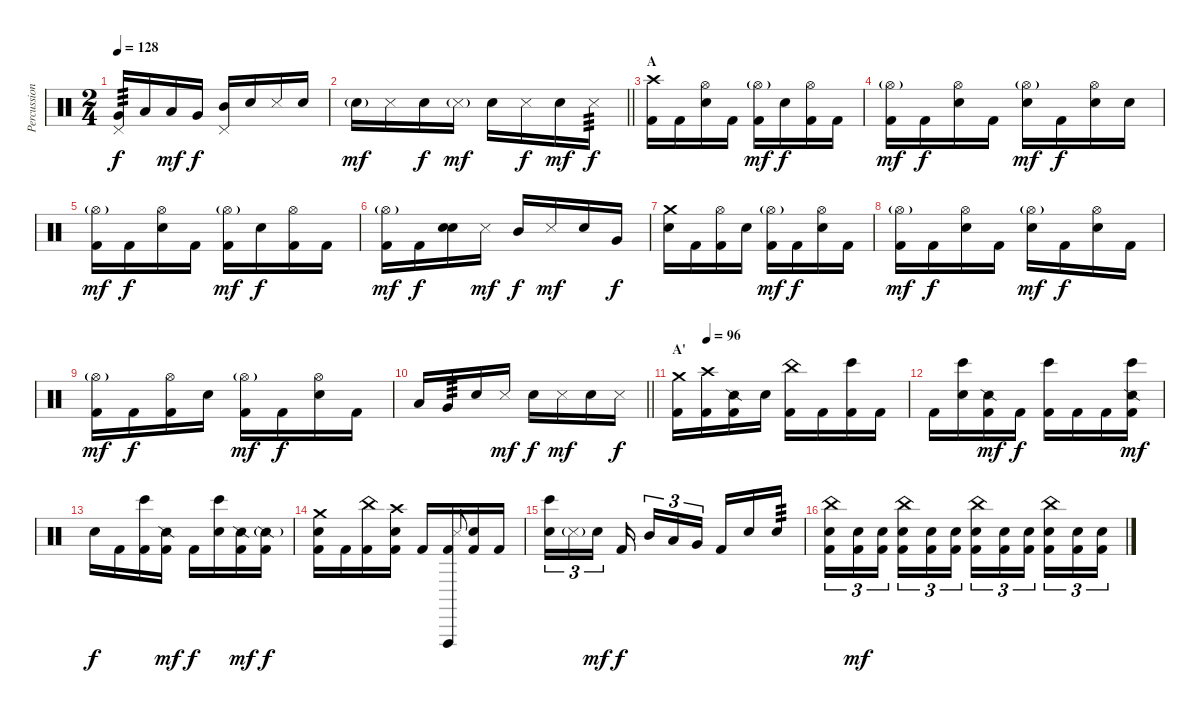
\track ("Percussion" "Percussion") {instrument percussion}
\staff {score}
\articulation defaults
\ts (2 4)
\tempo 128
\clef neutral
\ks c
("Pedal Hi-Hat (hit)" "Very Low Tom (hit)").16{tp 3 dy f} "Low Tom (hit)".16 "Low Tom (hit)".16{dy mf} "Very Low Tom (hit)".16{dy f} ("Pedal Hi-Hat (hit)" "Mid Tom (hit)").16 "Snare (hit) 2".16 "Metronome (hit)".16 "Snare (hit) 2".16 |
\barLineRight lightlight "Snare (hit) 2"{g}.16{dy mf} "Metronome (hit)".16 "Snare (hit) 2".16{dy f} "Metronome (hit)"{g}.16{dy mf} "Snare (hit) 2".16 "Metronome (hit)".16{dy f} "Snare (hit) 2".16{dy mf} "Metronome (hit)".16{tp 3 dy f}
|
\section ("" "A")
("Crash high (hit)" "Kick (hit) 2").16 "Kick (hit) 2".16 ("Hi-Hat (open)" "Snare (hit) 2").16 "Kick (hit) 2".16 ("Hi-Hat (open)"{g} "Kick (hit) 2").16{dy mf} "Snare (hit) 2".16{dy f} ("Hi-Hat (open)" "Kick (hit) 2").16 "Kick (hit) 2".16 |
("Hi-Hat (open)"{g} "Kick (hit) 2").16{dy mf} "Kick (hit) 2".16{dy f} ("Hi-Hat (open)" "Snare (hit) 2").16 "Kick (hit) 2".16 ("Hi-Hat (open)"{g} "Snare (hit) 2").16{dy mf} "Kick (hit) 2".16{dy f} ("Hi-Hat (open)" "Snare (hit) 2").16 "Snare (hit) 2".16 |
("Hi-Hat (open)"{g} "Kick (hit) 2").16{dy mf} "Kick (hit) 2".16{dy f} ("Hi-Hat (open)" "Snare (hit) 2").16 "Kick (hit) 2".16 ("Hi-Hat (open)"{g} "Kick (hit) 2").16{dy mf} "Snare (hit) 2".16{dy f} ("Hi-Hat (open)" "Kick (hit) 2").16 "Kick (hit) 2".16 |
("Hi-Hat (open)"{g} "Kick (hit) 2").16{dy mf} "Kick (hit) 2".16{dy f} ("Snare (hit)" "Snare (hit) 2").16 "Metronome (hit)".16{dy mf} "Mid Tom (hit)".16{dy f} "Metronome (hit)".16{dy mf} "Snare (hit) 2".16 "Very Low Tom (hit)".16{dy f} |
("Crash medium (hit)" "Snare (hit) 2").16 "Kick (hit) 2".16 ("Hi-Hat (open)" "Kick (hit) 2").16 "Snare (hit) 2".16 ("Hi-Hat (open)"{g} "Kick (hit) 2").16{dy mf} "Kick (hit) 2".16{dy f} ("Hi-Hat (open)" "Snare (hit) 2").16 "Kick (hit) 2".16 |
("Hi-Hat (open)"{g} "Kick (hit) 2").16{dy mf} "Kick (hit) 2".16{dy f} ("Hi-Hat (open)" "Snare (hit) 2").16 "Kick (hit) 2".16 ("Hi-Hat (open)"{g} "Snare (hit) 2").16{dy mf} "Kick (hit) 2".16{dy f} ("Hi-Hat (open)" "Snare (hit) 2").16 "Kick (hit) 2".16 |
("Hi-Hat (open)"{g} "Kick (hit) 2").16{dy mf} "Kick (hit) 2".16{dy f} ("Hi-Hat (open)" "Kick (hit) 2").16 "Snare (hit) 2".16 ("Hi-Hat (open)"{g} "Kick (hit) 2").16{dy mf} "Kick (hit) 2".16{dy f} ("Hi-Hat (open)" "Snare (hit) 2").16 "Kick (hit) 2".16 |
\barLineRight lightlight "Low Tom (hit)".16 "Very Low Tom (hit)".16{tp 3} "Snare (hit) 2".16 "Metronome (hit)".16{dy mf} "Snare (hit) 2".16{dy f} "Metronome (hit)".16{dy mf} "Snare (hit) 2".16 "Metronome (hit)".16{dy f}
|
\section ("" "A'")
\tempo (96 0.125)
("Crash medium (hit)" "Kick (hit) 2").16 ("Crash high (hit)" "Kick (hit) 2").16 ("Snare (side stick) 2" "Kick (hit) 2").16 "Snare (hit) 2".16 ("China (hit)" "Kick (hit) 2").16 "Kick (hit) 2".16 ("Bongo High (hit)" "Kick (hit) 2").16 "Kick (hit) 2".16 |
"Kick (hit) 2".16 ("Bongo High (hit)" "Snare (hit) 2").16 ("Snare (side stick) 2" "Kick (hit) 2").16{dy mf} "Kick (hit) 2".16{dy f} ("Bongo High (hit)" "Kick (hit) 2").16 "Kick (hit) 2".16 "Kick (hit) 2".16 ("Bongo High (hit)" "Snare (side stick) 2" "Kick (hit) 2").16{dy mf} |
"Snare (hit) 2".16{dy f} "Kick (hit) 2".16 ("Bongo High (hit)" "Kick (hit) 2").16 ("Snare (side stick) 2" "Kick (hit) 2").16{dy mf} "Kick (hit) 2".16{dy f} ("Bongo High (hit)" "Snare (hit) 2").16 ("Snare (side stick) 2" "Kick (hit) 2").16{dy mf} ("Snare (side stick) 2"{g} "Kick (hit) 2").16{dy f} |
("Crash medium (hit)" "Snare (hit) 2" "Kick (hit) 2").16 "Kick (hit) 2".16 ("China (hit)" "Kick (hit) 2").16 ("Crash high (hit)" "Snare (hit) 2" "Kick (hit) 2").16 "Kick (hit) 2".16 ("Vibraslap (hit)" "Kick (hit) 2").16 "Metronome (hit)".8{gr onbeat} ("Snare (hit) 2" "Kick (hit) 2").16 "Kick (hit) 2".16 |
("Bongo High (hit)" "Snare (hit) 2").16{tu (3 2)} "Metronome (hit)"{g}.16{tu (3 2)} "Snare (hit) 2".16{tu (3 2) dy mf beam splitsecondary} "Kick (hit) 2".16{dy f beam splitsecondary} "Mid Tom (hit)".16{tu (3 2)} "Low Tom (hit)".16{tu (3 2)} "Very Low Tom (hit)".16{tu (3 2) beam splitsecondary} "Kick (hit) 2".16 "Snare (hit) 2".16 "Snare (hit) 2".16{tp 3} |
("China (hit)" "Snare (hit) 2" "Kick (hit) 2").16{tu (3 2)} ("Snare (hit) 2" "Kick (hit) 2").16{tu (3 2) dy mf} ("Snare (hit) 2" "Kick (hit) 2").16{tu (3 2) beam splitsecondary} ("China (hit)" "Snare (hit) 2" "Kick (hit) 2").16{tu (3 2)} ("Snare (hit) 2" "Kick (hit) 2").16{tu (3 2)} ("Snare (hit) 2" "Kick (hit) 2").16{tu (3 2)} ("China (hit)" "Snare (hit) 2" "Kick (hit) 2").16{tu (3 2)} ("Snare (hit) 2" "Kick (hit) 2").16{tu (3 2)} ("Snare (hit) 2" "Kick (hit) 2").16{tu (3 2) beam splitsecondary} ("China (hit)" "Snare (hit) 2" "Kick (hit) 2").16{tu (3 2)} ("Snare (hit) 2" "Kick (hit) 2").16{tu (3 2)} ("Snare (hit) 2" "Kick (hit) 2").16{tu (3 2)}
